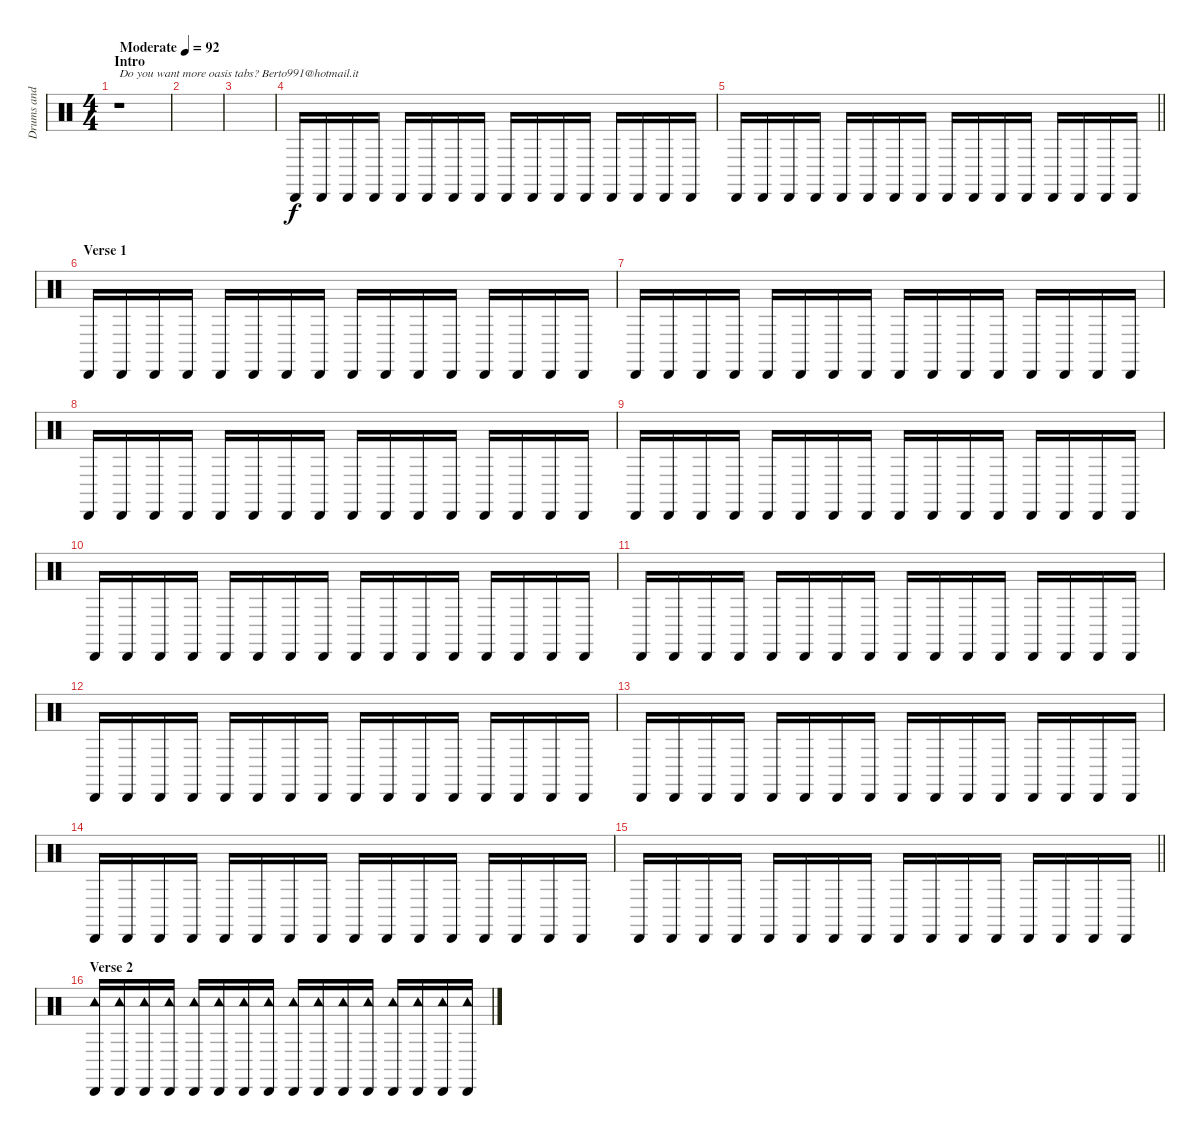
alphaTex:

\track ("Drums and Percussions" "Drums and ") {instrument percussion}
\staff {score}
\articulation defaults
\ts (4 4)
\section ("" "Intro")
\tempo (92 "Moderate")
\clef neutral
\ks c
r.1{txt "Do you want more oasis tabs? Berto991@hotmail.it" dy f} |
|
|
"Cabasa (hit)".16 "Cabasa (hit)".16 "Cabasa (hit)".16 "Cabasa (hit)".16 "Cabasa (hit)".16 "Cabasa (hit)".16 "Cabasa (hit)".16 "Cabasa (hit)".16 "Cabasa (hit)".16 "Cabasa (hit)".16 "Cabasa (hit)".16 "Cabasa (hit)".16 "Cabasa (hit)".16 "Cabasa (hit)".16 "Cabasa (hit)".16 "Cabasa (hit)".16 |
\barLineRight lightlight "Cabasa (hit)".16 "Cabasa (hit)".16 "Cabasa (hit)".16 "Cabasa (hit)".16 "Cabasa (hit)".16 "Cabasa (hit)".16 "Cabasa (hit)".16 "Cabasa (hit)".16 "Cabasa (hit)".16 "Cabasa (hit)".16 "Cabasa (hit)".16 "Cabasa (hit)".16 "Cabasa (hit)".16 "Cabasa (hit)".16 "Cabasa (hit)".16 "Cabasa (hit)".16
|
\section ("" "Verse 1")
"Cabasa (hit)".16 "Cabasa (hit)".16 "Cabasa (hit)".16 "Cabasa (hit)".16 "Cabasa (hit)".16 "Cabasa (hit)".16 "Cabasa (hit)".16 "Cabasa (hit)".16 "Cabasa (hit)".16 "Cabasa (hit)".16 "Cabasa (hit)".16 "Cabasa (hit)".16 "Cabasa (hit)".16 "Cabasa (hit)".16 "Cabasa (hit)".16 "Cabasa (hit)".16 |
"Cabasa (hit)".16 "Cabasa (hit)".16 "Cabasa (hit)".16 "Cabasa (hit)".16 "Cabasa (hit)".16 "Cabasa (hit)".16 "Cabasa (hit)".16 "Cabasa (hit)".16 "Cabasa (hit)".16 "Cabasa (hit)".16 "Cabasa (hit)".16 "Cabasa (hit)".16 "Cabasa (hit)".16 "Cabasa (hit)".16 "Cabasa (hit)".16 "Cabasa (hit)".16 |
"Cabasa (hit)".16 "Cabasa (hit)".16 "Cabasa (hit)".16 "Cabasa (hit)".16 "Cabasa (hit)".16 "Cabasa (hit)".16 "Cabasa (hit)".16 "Cabasa (hit)".16 "Cabasa (hit)".16 "Cabasa (hit)".16 "Cabasa (hit)".16 "Cabasa (hit)".16 "Cabasa (hit)".16 "Cabasa (hit)".16 "Cabasa (hit)".16 "Cabasa (hit)".16 |
"Cabasa (hit)".16 "Cabasa (hit)".16 "Cabasa (hit)".16 "Cabasa (hit)".16 "Cabasa (hit)".16 "Cabasa (hit)".16 "Cabasa (hit)".16 "Cabasa (hit)".16 "Cabasa (hit)".16 "Cabasa (hit)".16 "Cabasa (hit)".16 "Cabasa (hit)".16 "Cabasa (hit)".16 "Cabasa (hit)".16 "Cabasa (hit)".16 "Cabasa (hit)".16 |
"Cabasa (hit)".16 "Cabasa (hit)".16 "Cabasa (hit)".16 "Cabasa (hit)".16 "Cabasa (hit)".16 "Cabasa (hit)".16 "Cabasa (hit)".16 "Cabasa (hit)".16 "Cabasa (hit)".16 "Cabasa (hit)".16 "Cabasa (hit)".16 "Cabasa (hit)".16 "Cabasa (hit)".16 "Cabasa (hit)".16 "Cabasa (hit)".16 "Cabasa (hit)".16 |
"Cabasa (hit)".16 "Cabasa (hit)".16 "Cabasa (hit)".16 "Cabasa (hit)".16 "Cabasa (hit)".16 "Cabasa (hit)".16 "Cabasa (hit)".16 "Cabasa (hit)".16 "Cabasa (hit)".16 "Cabasa (hit)".16 "Cabasa (hit)".16 "Cabasa (hit)".16 "Cabasa (hit)".16 "Cabasa (hit)".16 "Cabasa (hit)".16 "Cabasa (hit)".16 |
"Cabasa (hit)".16 "Cabasa (hit)".16 "Cabasa (hit)".16 "Cabasa (hit)".16 "Cabasa (hit)".16 "Cabasa (hit)".16 "Cabasa (hit)".16 "Cabasa (hit)".16 "Cabasa (hit)".16 "Cabasa (hit)".16 "Cabasa (hit)".16 "Cabasa (hit)".16 "Cabasa (hit)".16 "Cabasa (hit)".16 "Cabasa (hit)".16 "Cabasa (hit)".16 |
"Cabasa (hit)".16 "Cabasa (hit)".16 "Cabasa (hit)".16 "Cabasa (hit)".16 "Cabasa (hit)".16 "Cabasa (hit)".16 "Cabasa (hit)".16 "Cabasa (hit)".16 "Cabasa (hit)".16 "Cabasa (hit)".16 "Cabasa (hit)".16 "Cabasa (hit)".16 "Cabasa (hit)".16 "Cabasa (hit)".16 "Cabasa (hit)".16 "Cabasa (hit)".16 |
"Cabasa (hit)".16 "Cabasa (hit)".16 "Cabasa (hit)".16 "Cabasa (hit)".16 "Cabasa (hit)".16 "Cabasa (hit)".16 "Cabasa (hit)".16 "Cabasa (hit)".16 "Cabasa (hit)".16 "Cabasa (hit)".16 "Cabasa (hit)".16 "Cabasa (hit)".16 "Cabasa (hit)".16 "Cabasa (hit)".16 "Cabasa (hit)".16 "Cabasa (hit)".16 |
\barLineRight lightlight "Cabasa (hit)".16 "Cabasa (hit)".16 "Cabasa (hit)".16 "Cabasa (hit)".16 "Cabasa (hit)".16 "Cabasa (hit)".16 "Cabasa (hit)".16 "Cabasa (hit)".16 "Cabasa (hit)".16 "Cabasa (hit)".16 "Cabasa (hit)".16 "Cabasa (hit)".16 "Cabasa (hit)".16 "Cabasa (hit)".16 "Cabasa (hit)".16 "Cabasa (hit)".16
|
\section ("" "Verse 2")
("Cabasa (hit)" "Tambourine (hit)").16 ("Cabasa (hit)" "Tambourine (hit)").16 ("Cabasa (hit)" "Tambourine (hit)").16 ("Cabasa (hit)" "Tambourine (hit)").16 ("Cabasa (hit)" "Tambourine (hit)").16 ("Cabasa (hit)" "Tambourine (hit)").16 ("Cabasa (hit)" "Tambourine (hit)").16 ("Cabasa (hit)" "Tambourine (hit)").16 ("Cabasa (hit)" "Tambourine (hit)").16 ("Cabasa (hit)" "Tambourine (hit)").16 ("Cabasa (hit)" "Tambourine (hit)").16 ("Cabasa (hit)" "Tambourine (hit)").16 ("Cabasa (hit)" "Tambourine (hit)").16 ("Cabasa (hit)" "Tambourine (hit)").16 ("Cabasa (hit)" "Tambourine (hit)").16 ("Cabasa (hit)" "Tambourine (hit)").16
